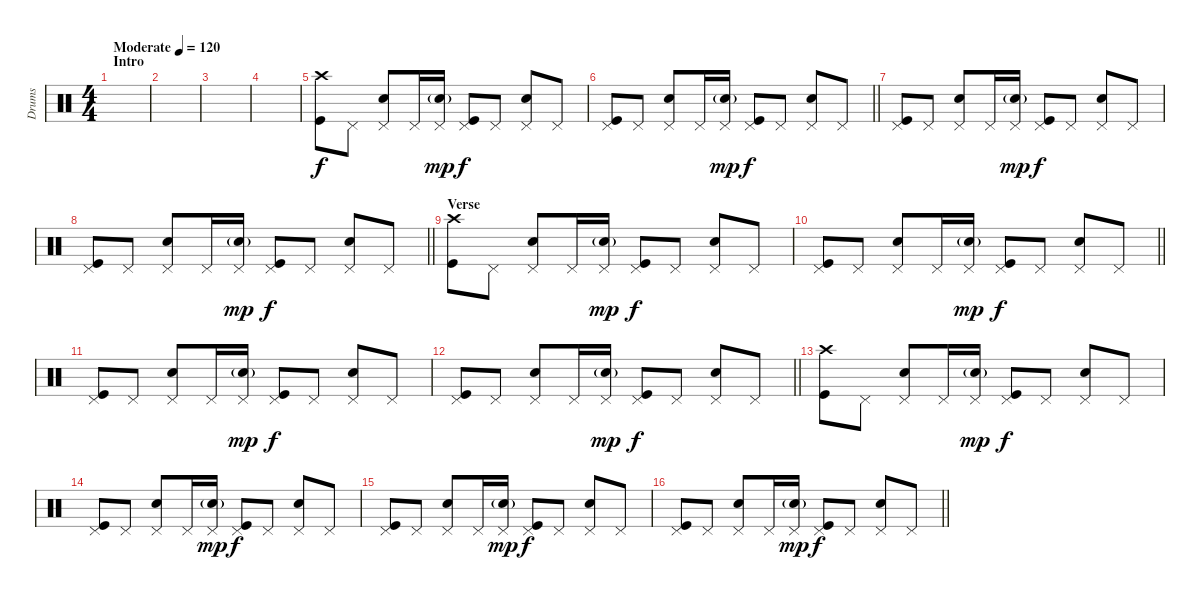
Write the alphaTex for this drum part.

\track ("Drums" "Drums") {instrument percussion}
\staff {score}
\articulation defaults
\ts (4 4)
\section ("" "Intro")
\tempo (120 "Moderate")
\clef neutral
\ks c
|
|
|
|
("Crash high (hit)" "Kick (hit)").8 "Pedal Hi-Hat (hit)".8 ("Snare (hit) 2" "Pedal Hi-Hat (hit)").8 "Pedal Hi-Hat (hit)".16 ("Snare (hit) 2"{g} "Pedal Hi-Hat (hit)").16{dy mp} ("Kick (hit)" "Pedal Hi-Hat (hit)").8{dy f} "Pedal Hi-Hat (hit)".8 ("Snare (hit) 2" "Pedal Hi-Hat (hit)").8 "Pedal Hi-Hat (hit)".8 |
\barLineRight lightlight
("Kick (hit)" "Pedal Hi-Hat (hit)").8 "Pedal Hi-Hat (hit)".8 ("Snare (hit) 2" "Pedal Hi-Hat (hit)").8 "Pedal Hi-Hat (hit)".16 ("Snare (hit) 2"{g} "Pedal Hi-Hat (hit)").16{dy mp} ("Kick (hit)" "Pedal Hi-Hat (hit)").8{dy f} "Pedal Hi-Hat (hit)".8 ("Snare (hit) 2" "Pedal Hi-Hat (hit)").8 "Pedal Hi-Hat (hit)".8 |
("Kick (hit)" "Pedal Hi-Hat (hit)").8 "Pedal Hi-Hat (hit)".8 ("Snare (hit) 2" "Pedal Hi-Hat (hit)").8 "Pedal Hi-Hat (hit)".16 ("Snare (hit) 2"{g} "Pedal Hi-Hat (hit)").16{dy mp} ("Kick (hit)" "Pedal Hi-Hat (hit)").8{dy f} "Pedal Hi-Hat (hit)".8 ("Snare (hit) 2" "Pedal Hi-Hat (hit)").8 "Pedal Hi-Hat (hit)".8 |
\barLineRight lightlight
("Kick (hit)" "Pedal Hi-Hat (hit)").8 "Pedal Hi-Hat (hit)".8 ("Snare (hit) 2" "Pedal Hi-Hat (hit)").8 "Pedal Hi-Hat (hit)".16 ("Snare (hit) 2"{g} "Pedal Hi-Hat (hit)").16{dy mp} ("Kick (hit)" "Pedal Hi-Hat (hit)").8{dy f} "Pedal Hi-Hat (hit)".8 ("Snare (hit) 2" "Pedal Hi-Hat (hit)").8 "Pedal Hi-Hat (hit)".8 |
\section ("" "Verse")
("Crash high (hit)" "Kick (hit)").8 "Pedal Hi-Hat (hit)".8 ("Snare (hit) 2" "Pedal Hi-Hat (hit)").8 "Pedal Hi-Hat (hit)".16 ("Snare (hit) 2"{g} "Pedal Hi-Hat (hit)").16{dy mp} ("Kick (hit)" "Pedal Hi-Hat (hit)").8{dy f} "Pedal Hi-Hat (hit)".8 ("Snare (hit) 2" "Pedal Hi-Hat (hit)").8 "Pedal Hi-Hat (hit)".8 |
\barLineRight lightlight
("Kick (hit)" "Pedal Hi-Hat (hit)").8 "Pedal Hi-Hat (hit)".8 ("Snare (hit) 2" "Pedal Hi-Hat (hit)").8 "Pedal Hi-Hat (hit)".16 ("Snare (hit) 2"{g} "Pedal Hi-Hat (hit)").16{dy mp} ("Kick (hit)" "Pedal Hi-Hat (hit)").8{dy f} "Pedal Hi-Hat (hit)".8 ("Snare (hit) 2" "Pedal Hi-Hat (hit)").8 "Pedal Hi-Hat (hit)".8 |
("Kick (hit)" "Pedal Hi-Hat (hit)").8 "Pedal Hi-Hat (hit)".8 ("Snare (hit) 2" "Pedal Hi-Hat (hit)").8 "Pedal Hi-Hat (hit)".16 ("Snare (hit) 2"{g} "Pedal Hi-Hat (hit)").16{dy mp} ("Kick (hit)" "Pedal Hi-Hat (hit)").8{dy f} "Pedal Hi-Hat (hit)".8 ("Snare (hit) 2" "Pedal Hi-Hat (hit)").8 "Pedal Hi-Hat (hit)".8 |
\barLineRight lightlight
("Kick (hit)" "Pedal Hi-Hat (hit)").8 "Pedal Hi-Hat (hit)".8 ("Snare (hit) 2" "Pedal Hi-Hat (hit)").8 "Pedal Hi-Hat (hit)".16 ("Snare (hit) 2"{g} "Pedal Hi-Hat (hit)").16{dy mp} ("Kick (hit)" "Pedal Hi-Hat (hit)").8{dy f} "Pedal Hi-Hat (hit)".8 ("Snare (hit) 2" "Pedal Hi-Hat (hit)").8 "Pedal Hi-Hat (hit)".8 |
("Crash high (hit)" "Kick (hit)").8 "Pedal Hi-Hat (hit)".8 ("Snare (hit) 2" "Pedal Hi-Hat (hit)").8 "Pedal Hi-Hat (hit)".16 ("Snare (hit) 2"{g} "Pedal Hi-Hat (hit)").16{dy mp} ("Kick (hit)" "Pedal Hi-Hat (hit)").8{dy f} "Pedal Hi-Hat (hit)".8 ("Snare (hit) 2" "Pedal Hi-Hat (hit)").8 "Pedal Hi-Hat (hit)".8 |
("Kick (hit)" "Pedal Hi-Hat (hit)").8 "Pedal Hi-Hat (hit)".8 ("Snare (hit) 2" "Pedal Hi-Hat (hit)").8 "Pedal Hi-Hat (hit)".16 ("Snare (hit) 2"{g} "Pedal Hi-Hat (hit)").16{dy mp} ("Kick (hit)" "Pedal Hi-Hat (hit)").8{dy f} "Pedal Hi-Hat (hit)".8 ("Snare (hit) 2" "Pedal Hi-Hat (hit)").8 "Pedal Hi-Hat (hit)".8 |
("Kick (hit)" "Pedal Hi-Hat (hit)").8 "Pedal Hi-Hat (hit)".8 ("Snare (hit) 2" "Pedal Hi-Hat (hit)").8 "Pedal Hi-Hat (hit)".16 ("Snare (hit) 2"{g} "Pedal Hi-Hat (hit)").16{dy mp} ("Kick (hit)" "Pedal Hi-Hat (hit)").8{dy f} "Pedal Hi-Hat (hit)".8 ("Snare (hit) 2" "Pedal Hi-Hat (hit)").8 "Pedal Hi-Hat (hit)".8 |
\barLineRight lightlight
("Kick (hit)" "Pedal Hi-Hat (hit)").8 "Pedal Hi-Hat (hit)".8 ("Snare (hit) 2" "Pedal Hi-Hat (hit)").8 "Pedal Hi-Hat (hit)".16 ("Snare (hit) 2"{g} "Pedal Hi-Hat (hit)").16{dy mp} ("Kick (hit)" "Pedal Hi-Hat (hit)").8{dy f} "Pedal Hi-Hat (hit)".8 ("Snare (hit) 2" "Pedal Hi-Hat (hit)").8 "Pedal Hi-Hat (hit)".8
